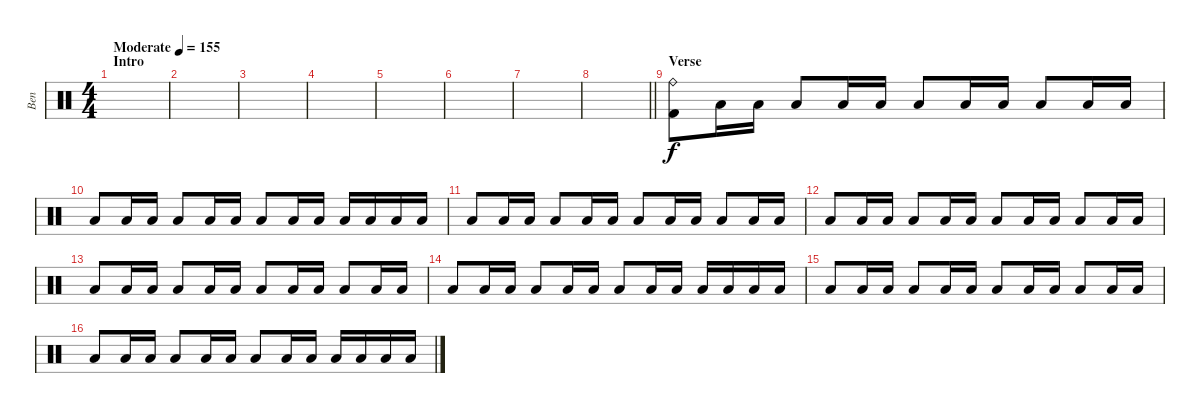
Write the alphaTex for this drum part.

\track ("Ben" "Ben") {instrument percussion}
\staff {score}
\articulation defaults
\ts (4 4)
\section ("" "Intro")
\tempo (155 "Moderate")
\clef neutral
\ks c
|
|
|
|
|
|
|
\barLineRight lightlight
|
\section ("" "Verse")
("Kick (hit) 2" "Ride (bell)").8 "Low Floor Tom (hit)".16 "Low Floor Tom (hit)".16 "Low Floor Tom (hit)".8 "Low Floor Tom (hit)".16 "Low Floor Tom (hit)".16 "Low Floor Tom (hit)".8 "Low Floor Tom (hit)".16 "Low Floor Tom (hit)".16 "Low Floor Tom (hit)".8 "Low Floor Tom (hit)".16 "Low Floor Tom (hit)".16 |
"Low Floor Tom (hit)".8 "Low Floor Tom (hit)".16 "Low Floor Tom (hit)".16 "Low Floor Tom (hit)".8 "Low Floor Tom (hit)".16 "Low Floor Tom (hit)".16 "Low Floor Tom (hit)".8 "Low Floor Tom (hit)".16 "Low Floor Tom (hit)".16 "Low Floor Tom (hit)".16 "Low Floor Tom (hit)".16 "Low Floor Tom (hit)".16 "Low Floor Tom (hit)".16 |
"Low Floor Tom (hit)".8 "Low Floor Tom (hit)".16 "Low Floor Tom (hit)".16 "Low Floor Tom (hit)".8 "Low Floor Tom (hit)".16 "Low Floor Tom (hit)".16 "Low Floor Tom (hit)".8 "Low Floor Tom (hit)".16 "Low Floor Tom (hit)".16 "Low Floor Tom (hit)".8 "Low Floor Tom (hit)".16 "Low Floor Tom (hit)".16 |
"Low Floor Tom (hit)".8 "Low Floor Tom (hit)".16 "Low Floor Tom (hit)".16 "Low Floor Tom (hit)".8 "Low Floor Tom (hit)".16 "Low Floor Tom (hit)".16 "Low Floor Tom (hit)".8 "Low Floor Tom (hit)".16 "Low Floor Tom (hit)".16 "Low Floor Tom (hit)".8 "Low Floor Tom (hit)".16 "Low Floor Tom (hit)".16 |
"Low Floor Tom (hit)".8 "Low Floor Tom (hit)".16 "Low Floor Tom (hit)".16 "Low Floor Tom (hit)".8 "Low Floor Tom (hit)".16 "Low Floor Tom (hit)".16 "Low Floor Tom (hit)".8 "Low Floor Tom (hit)".16 "Low Floor Tom (hit)".16 "Low Floor Tom (hit)".8 "Low Floor Tom (hit)".16 "Low Floor Tom (hit)".16 |
"Low Floor Tom (hit)".8 "Low Floor Tom (hit)".16 "Low Floor Tom (hit)".16 "Low Floor Tom (hit)".8 "Low Floor Tom (hit)".16 "Low Floor Tom (hit)".16 "Low Floor Tom (hit)".8 "Low Floor Tom (hit)".16 "Low Floor Tom (hit)".16 "Low Floor Tom (hit)".16 "Low Floor Tom (hit)".16 "Low Floor Tom (hit)".16 "Low Floor Tom (hit)".16 |
"Low Floor Tom (hit)".8 "Low Floor Tom (hit)".16 "Low Floor Tom (hit)".16 "Low Floor Tom (hit)".8 "Low Floor Tom (hit)".16 "Low Floor Tom (hit)".16 "Low Floor Tom (hit)".8 "Low Floor Tom (hit)".16 "Low Floor Tom (hit)".16 "Low Floor Tom (hit)".8 "Low Floor Tom (hit)".16 "Low Floor Tom (hit)".16 |
"Low Floor Tom (hit)".8 "Low Floor Tom (hit)".16 "Low Floor Tom (hit)".16 "Low Floor Tom (hit)".8 "Low Floor Tom (hit)".16 "Low Floor Tom (hit)".16 "Low Floor Tom (hit)".8 "Low Floor Tom (hit)".16 "Low Floor Tom (hit)".16 "Low Floor Tom (hit)".16 "Low Floor Tom (hit)".16 "Low Floor Tom (hit)".16 "Low Floor Tom (hit)".16
